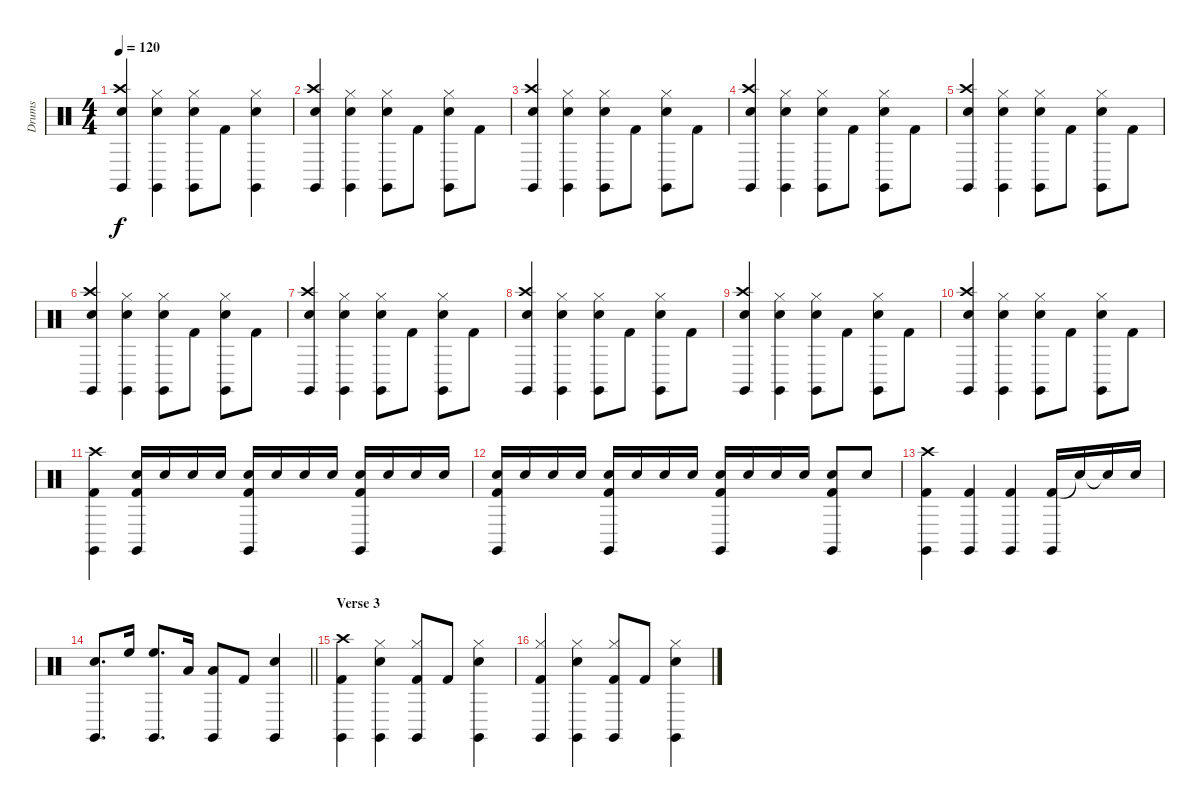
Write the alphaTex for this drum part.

\track ("Drums" "Drums") {instrument percussion}
\staff {score}
\articulation defaults
\ts (4 4)
\tempo 120
\clef neutral
\ks c
("Crash high (hit)" "Snare (hit) 2" "Claves (hit)").4{dy f} ("Hi-Hat (closed)" "Snare (hit) 2" "Claves (hit)").4 ("Hi-Hat (closed)" "Snare (hit) 2" "Claves (hit)").8 "Kick (hit) 2".8 ("Hi-Hat (closed)" "Snare (hit) 2" "Claves (hit)").4 |
("Crash high (hit)" "Snare (hit) 2" "Claves (hit)").4 ("Hi-Hat (closed)" "Snare (hit) 2" "Claves (hit)").4 ("Hi-Hat (closed)" "Snare (hit) 2" "Claves (hit)").8 "Kick (hit) 2".8 ("Hi-Hat (closed)" "Snare (hit) 2" "Claves (hit)").8 "Kick (hit) 2".8 |
("Crash high (hit)" "Snare (hit) 2" "Claves (hit)").4 ("Hi-Hat (closed)" "Snare (hit) 2" "Claves (hit)").4 ("Hi-Hat (closed)" "Snare (hit) 2" "Claves (hit)").8 "Kick (hit) 2".8 ("Hi-Hat (closed)" "Snare (hit) 2" "Claves (hit)").8 "Kick (hit) 2".8 |
("Crash high (hit)" "Snare (hit) 2" "Claves (hit)").4 ("Hi-Hat (closed)" "Snare (hit) 2" "Claves (hit)").4 ("Hi-Hat (closed)" "Snare (hit) 2" "Claves (hit)").8 "Kick (hit) 2".8 ("Hi-Hat (closed)" "Snare (hit) 2" "Claves (hit)").8 "Kick (hit) 2".8 |
("Crash high (hit)" "Snare (hit) 2" "Claves (hit)").4 ("Hi-Hat (closed)" "Snare (hit) 2" "Claves (hit)").4 ("Hi-Hat (closed)" "Snare (hit) 2" "Claves (hit)").8 "Kick (hit) 2".8 ("Hi-Hat (closed)" "Snare (hit) 2" "Claves (hit)").8 "Kick (hit) 2".8 |
("Crash high (hit)" "Snare (hit) 2" "Claves (hit)").4 ("Hi-Hat (closed)" "Snare (hit) 2" "Claves (hit)").4 ("Hi-Hat (closed)" "Snare (hit) 2" "Claves (hit)").8 "Kick (hit) 2".8 ("Hi-Hat (closed)" "Snare (hit) 2" "Claves (hit)").8 "Kick (hit) 2".8 |
("Crash high (hit)" "Snare (hit) 2" "Claves (hit)").4 ("Hi-Hat (closed)" "Snare (hit) 2" "Claves (hit)").4 ("Hi-Hat (closed)" "Snare (hit) 2" "Claves (hit)").8 "Kick (hit) 2".8 ("Hi-Hat (closed)" "Snare (hit) 2" "Claves (hit)").8 "Kick (hit) 2".8 |
("Crash high (hit)" "Snare (hit) 2" "Claves (hit)").4 ("Hi-Hat (closed)" "Snare (hit) 2" "Claves (hit)").4 ("Hi-Hat (closed)" "Snare (hit) 2" "Claves (hit)").8 "Kick (hit) 2".8 ("Hi-Hat (closed)" "Snare (hit) 2" "Claves (hit)").8 "Kick (hit) 2".8 |
("Crash high (hit)" "Snare (hit) 2" "Claves (hit)").4 ("Hi-Hat (closed)" "Snare (hit) 2" "Claves (hit)").4 ("Hi-Hat (closed)" "Snare (hit) 2" "Claves (hit)").8 "Kick (hit) 2".8 ("Hi-Hat (closed)" "Snare (hit) 2" "Claves (hit)").8 "Kick (hit) 2".8 |
("Crash high (hit)" "Snare (hit) 2" "Claves (hit)").4 ("Hi-Hat (closed)" "Snare (hit) 2" "Claves (hit)").4 ("Hi-Hat (closed)" "Snare (hit) 2" "Claves (hit)").8 "Kick (hit) 2".8 ("Hi-Hat (closed)" "Snare (hit) 2" "Claves (hit)").8 "Kick (hit) 2".8 |
("Crash high (hit)" "Kick (hit) 2" "Claves (hit)").4 ("Snare (hit) 2" "Kick (hit) 2" "Claves (hit)").16 "Snare (hit) 2".16 "Snare (hit) 2".16 "Snare (hit) 2".16 ("Snare (hit) 2" "Kick (hit) 2" "Claves (hit)").16 "Snare (hit) 2".16 "Snare (hit) 2".16 "Snare (hit) 2".16 ("Snare (hit) 2" "Kick (hit) 2" "Claves (hit)").16 "Snare (hit) 2".16 "Snare (hit) 2".16 "Snare (hit) 2".16 |
("Snare (hit) 2" "Kick (hit) 2" "Claves (hit)").16 "Snare (hit) 2".16 "Snare (hit) 2".16 "Snare (hit) 2".16 ("Snare (hit) 2" "Kick (hit) 2" "Claves (hit)").16 "Snare (hit) 2".16 "Snare (hit) 2".16 "Snare (hit) 2".16 ("Snare (hit) 2" "Kick (hit) 2" "Claves (hit)").16 "Snare (hit) 2".16 "Snare (hit) 2".16 "Snare (hit) 2".16 ("Snare (hit) 2" "Kick (hit) 2" "Claves (hit)").8 "Snare (hit) 2".8 |
("Crash high (hit)" "Kick (hit) 2" "Claves (hit)").4 ("Kick (hit) 2" "Claves (hit)").4 ("Kick (hit) 2" "Claves (hit)").4 ("Kick (hit) 2" "Claves (hit)").16 "Snare (hit)"{t}.16 "Snare (hit)"{t}.16 "Snare (hit) 2".16 |
\barLineRight lightlight
("Snare (hit) 2" "Claves (hit)").8{d} "High Floor Tom (hit)".16 ("High Floor Tom (hit)" "Claves (hit)").8{d} "Low Tom (hit)".16 ("Low Tom (hit)" "Claves (hit)").8 "Kick (hit) 2".8 ("Snare (hit) 2" "Claves (hit)").4 |
\section ("" "Verse 3")
("Crash high (hit)" "Kick (hit) 2" "Claves (hit)").4 ("Hi-Hat (closed)" "Snare (hit) 2" "Claves (hit)").4 ("Hi-Hat (closed)" "Kick (hit) 2" "Claves (hit)").8 "Kick (hit) 2".8 ("Hi-Hat (closed)" "Snare (hit) 2" "Claves (hit)").4 |
("Hi-Hat (closed)" "Kick (hit) 2" "Claves (hit)").4 ("Hi-Hat (closed)" "Snare (hit) 2" "Claves (hit)").4 ("Hi-Hat (closed)" "Kick (hit) 2" "Claves (hit)").8 "Kick (hit) 2".8 ("Hi-Hat (closed)" "Snare (hit) 2" "Claves (hit)").4
